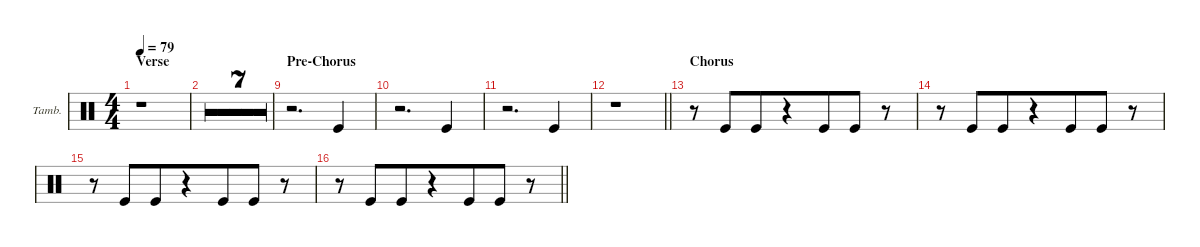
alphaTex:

\defaultSystemsLayout 4
\hideDynamics
\bracketExtendMode groupsimilarinstruments
\firstSystemTrackNameOrientation horizontal
\otherSystemsTrackNameOrientation horizontal
\track ("Tambourine" "Tamb.") {multiBarRest instrument percussion}
\staff {score}
\articulation defaults
\ts (4 4)
\section ("" "Verse")
\tempo 79
\clef neutral
\ks c
r.1{dy mf} |
r.1 |
r.1 |
r.1 |
r.1 |
r.1 |
r.1 |
\barLineRight lightlight
r.1 |
\section ("" "Pre-Chorus")
r.2{d beam merge} "Kick (hit)".4{beam merge} |
r.2{d beam merge} "Kick (hit)".4{beam merge} |
r.2{d beam merge} "Kick (hit)".4{beam merge} |
\barLineRight lightlight
r.1{beam merge} |
\section ("" "Chorus")
r.8{beam merge} "Kick (hit)".8{beam merge} "Kick (hit)".8{beam merge} r.4{beam merge} "Kick (hit)".8{beam merge} "Kick (hit)".8{beam merge} r.8{beam merge} |
r.8{beam merge} "Kick (hit)".8{beam merge} "Kick (hit)".8{beam merge} r.4{beam merge} "Kick (hit)".8{beam merge} "Kick (hit)".8{beam merge} r.8{beam merge} |
r.8{beam merge} "Kick (hit)".8{beam merge} "Kick (hit)".8{beam merge} r.4{beam merge} "Kick (hit)".8{beam merge} "Kick (hit)".8{beam merge} r.8{beam merge} |
\barLineRight lightlight
r.8{beam merge} "Kick (hit)".8{beam merge} "Kick (hit)".8{beam merge} r.4{beam merge} "Kick (hit)".8{beam merge} "Kick (hit)".8{beam merge} r.8{beam merge}
